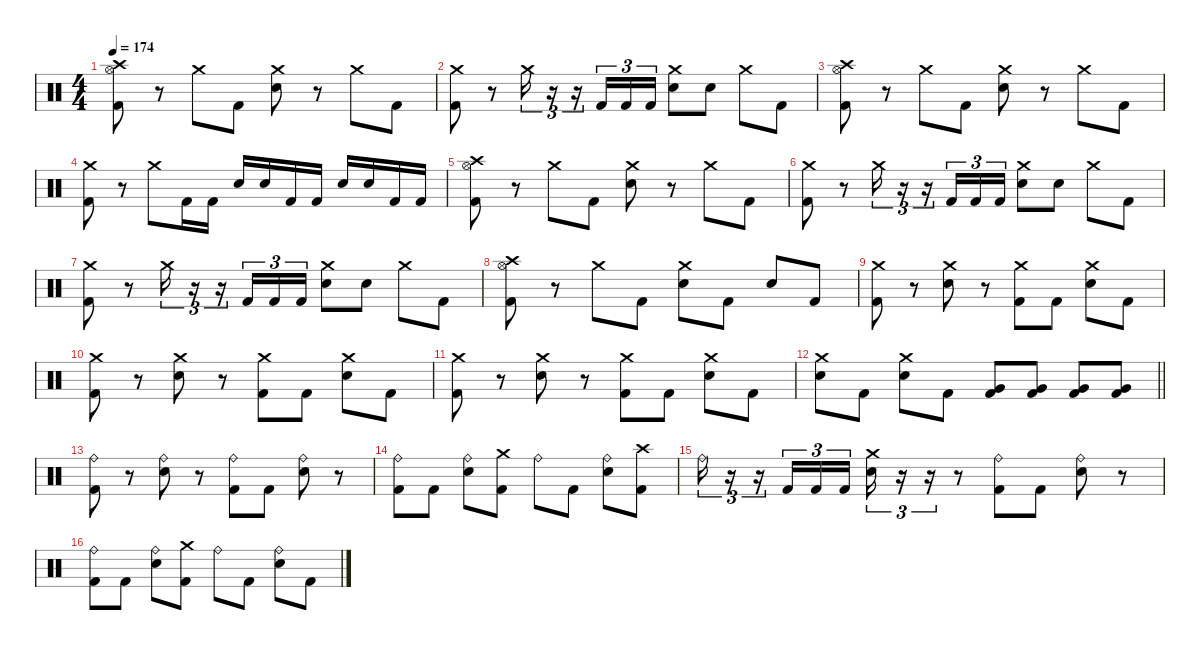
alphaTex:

\defaultSystemsLayout 4
\hideDynamics
\bracketExtendMode nobrackets
\singleTrackTrackNamePolicy hidden
\multiTrackTrackNamePolicy hidden
\firstSystemTrackNameMode fullname
\firstSystemTrackNameOrientation horizontal
\otherSystemsTrackNameOrientation horizontal
\track ("Drums" "drm.") {instrument percussion}
\staff {score}
\articulation defaults
\ts (4 4)
\tempo 174
\clef neutral
\ks c
("Crash high (hit)" "Hi-Hat (open)" "Kick (hit) 2").8{dy f beam Down} r.8{beam Down} "Crash medium (hit)".8{beam Down} "Kick (hit) 2".8{beam Down} ("Crash medium (hit)" "Snare (hit) 2").8{beam Down} r.8{beam Down} "Crash medium (hit)".8{beam Down} "Kick (hit) 2".8{beam Down} |
("Crash medium (hit)" "Kick (hit) 2").8{beam Down} r.8{beam Down} "Crash medium (hit)".16{tu (3 2) beam Down} r.16{tu (3 2) beam Down} r.16{tu (3 2) beam Down} "Kick (hit) 2".16{tu (3 2) beam Up} "Kick (hit) 2".16{tu (3 2) beam Up} "Kick (hit) 2".16{tu (3 2) beam Up} ("Crash medium (hit)" "Snare (hit) 2").8{beam Down} "Snare (hit) 2".8{beam Down} "Crash medium (hit)".8{beam Down} "Kick (hit) 2".8{beam Down} |
("Crash high (hit)" "Hi-Hat (open)" "Kick (hit) 2").8{beam Down} r.8{beam Down} "Crash medium (hit)".8{beam Down} "Kick (hit) 2".8{beam Down} ("Crash medium (hit)" "Snare (hit) 2").8{beam Down} r.8{beam Down} "Crash medium (hit)".8{beam Down} "Kick (hit) 2".8{beam Down} |
("Crash medium (hit)" "Kick (hit) 2").8{beam Down} r.8{beam Down} "Crash medium (hit)".8{beam Down} "Kick (hit) 2".16{beam Down} "Kick (hit) 2".16{beam Down} "Snare (hit) 2".16{beam Up} "Snare (hit) 2".16{beam Up} "Kick (hit) 2".16{beam Up} "Kick (hit) 2".16{beam Up} "Snare (hit) 2".16{beam Up} "Snare (hit) 2".16{beam Up} "Kick (hit) 2".16{beam Up} "Kick (hit) 2".16{beam Up} |
("Crash high (hit)" "Hi-Hat (open)" "Kick (hit) 2").8{beam Down} r.8{beam Down} "Crash medium (hit)".8{beam Down} "Kick (hit) 2".8{beam Down} ("Crash medium (hit)" "Snare (hit) 2").8{beam Down} r.8{beam Down} "Crash medium (hit)".8{beam Down} "Kick (hit) 2".8{beam Down} |
("Crash medium (hit)" "Kick (hit) 2").8{beam Down} r.8{beam Down} "Crash medium (hit)".16{tu (3 2) beam Down} r.16{tu (3 2) beam Down} r.16{tu (3 2) beam Down} "Kick (hit) 2".16{tu (3 2) beam Up} "Kick (hit) 2".16{tu (3 2) beam Up} "Kick (hit) 2".16{tu (3 2) beam Up} ("Crash medium (hit)" "Snare (hit) 2").8{beam Down} "Snare (hit) 2".8{beam Down} "Crash medium (hit)".8{beam Down} "Kick (hit) 2".8{beam Down} |
("Crash medium (hit)" "Kick (hit) 2").8{beam Down} r.8{beam Down} "Crash medium (hit)".16{tu (3 2) beam Down} r.16{tu (3 2) beam Down} r.16{tu (3 2) beam Down} "Kick (hit) 2".16{tu (3 2) beam Up} "Kick (hit) 2".16{tu (3 2) beam Up} "Kick (hit) 2".16{tu (3 2) beam Up} ("Crash medium (hit)" "Snare (hit) 2").8{beam Down} "Snare (hit) 2".8{beam Down} "Crash medium (hit)".8{beam Down} "Kick (hit) 2".8{beam Down} |
("Crash high (hit)" "Hi-Hat (open)" "Kick (hit) 2").8{beam Down} r.8{beam Down} "Crash medium (hit)".8{beam Down} "Kick (hit) 2".8{beam Down} ("Crash medium (hit)" "Snare (hit) 2").8{beam Down} "Kick (hit) 2".8{beam Down} "Snare (hit) 2".8{beam Up} "Kick (hit) 2".8{beam Up} |
("Crash medium (hit)" "Kick (hit) 2").8{beam Down} r.8{beam Down} ("Crash medium (hit)" "Snare (hit) 2").8{beam Down} r.8{beam Down} ("Crash medium (hit)" "Kick (hit) 2").8{beam Down} "Kick (hit) 2".8{beam Down} ("Crash medium (hit)" "Snare (hit) 2").8{beam Down} "Kick (hit) 2".8{beam Down} |
("Crash medium (hit)" "Kick (hit) 2").8{beam Down} r.8{beam Down} ("Crash medium (hit)" "Snare (hit) 2").8{beam Down} r.8{beam Down} ("Crash medium (hit)" "Kick (hit) 2").8{beam Down} "Kick (hit) 2".8{beam Down} ("Crash medium (hit)" "Snare (hit) 2").8{beam Down} "Kick (hit) 2".8{beam Down} |
("Crash medium (hit)" "Kick (hit) 2").8{beam Down} r.8{beam Down} ("Crash medium (hit)" "Snare (hit) 2").8{beam Down} r.8{beam Down} ("Crash medium (hit)" "Kick (hit) 2").8{beam Down} "Kick (hit) 2".8{beam Down} ("Crash medium (hit)" "Snare (hit) 2").8{beam Down} "Kick (hit) 2".8{beam Down} |
\barLineRight lightlight
("Crash medium (hit)" "Snare (hit) 2").8{beam Down} "Kick (hit) 2".8{beam Down} ("Crash medium (hit)" "Snare (hit) 2").8{beam Down} "Kick (hit) 2".8{beam Down} ("Very Low Tom (hit)" "Kick (hit) 2").8{beam Up} ("Very Low Tom (hit)" "Kick (hit) 2").8{beam Up} ("Very Low Tom (hit)" "Kick (hit) 2").8{beam Up} ("Very Low Tom (hit)" "Kick (hit) 2").8{beam Up} |
("Ride (bell)" "Kick (hit) 2").8{beam Down} r.8{beam Down} ("Ride (bell)" "Snare (hit) 2").8{beam Down} r.8{beam Down} ("Ride (bell)" "Kick (hit) 2").8{beam Down} "Kick (hit) 2".8{beam Down} ("Ride (bell)" "Snare (hit) 2").8{beam Down} r.8{beam Down} |
("Ride (bell)" "Kick (hit) 2").8{beam Down} "Kick (hit) 2".8{beam Down} ("Ride (bell)" "Snare (hit) 2").8{beam Down} ("Crash medium (hit)" "Kick (hit) 2").8{beam Down} "Ride (bell)".8{beam Down} "Kick (hit) 2".8{beam Down} ("Ride (bell)" "Snare (hit) 2").8{beam Down} ("Crash high (hit)" "Kick (hit) 2").8{beam Down} |
"Ride (bell)".16{tu (3 2) beam Down} r.16{tu (3 2) beam Down} r.16{tu (3 2) beam Down} "Kick (hit) 2".16{tu (3 2) beam Up} "Kick (hit) 2".16{tu (3 2) beam Up} "Kick (hit) 2".16{tu (3 2) beam Up} ("Crash medium (hit)" "Snare (hit) 2").16{tu (3 2) beam Down} r.16{tu (3 2) beam Down} r.16{tu (3 2) beam Down} r.8{beam Down} ("Ride (bell)" "Kick (hit) 2").8{beam Down} "Kick (hit) 2".8{beam Down} ("Ride (bell)" "Snare (hit) 2").8{beam Down} r.8{beam Down} |
("Ride (bell)" "Kick (hit) 2").8{beam Down} "Kick (hit) 2".8{beam Down} ("Ride (bell)" "Snare (hit) 2").8{beam Down} ("Crash medium (hit)" "Kick (hit) 2").8{beam Down} "Ride (bell)".8{beam Down} "Kick (hit) 2".8{beam Down} ("Ride (bell)" "Snare (hit) 2").8{beam Down} "Kick (hit) 2".8{beam Down}
